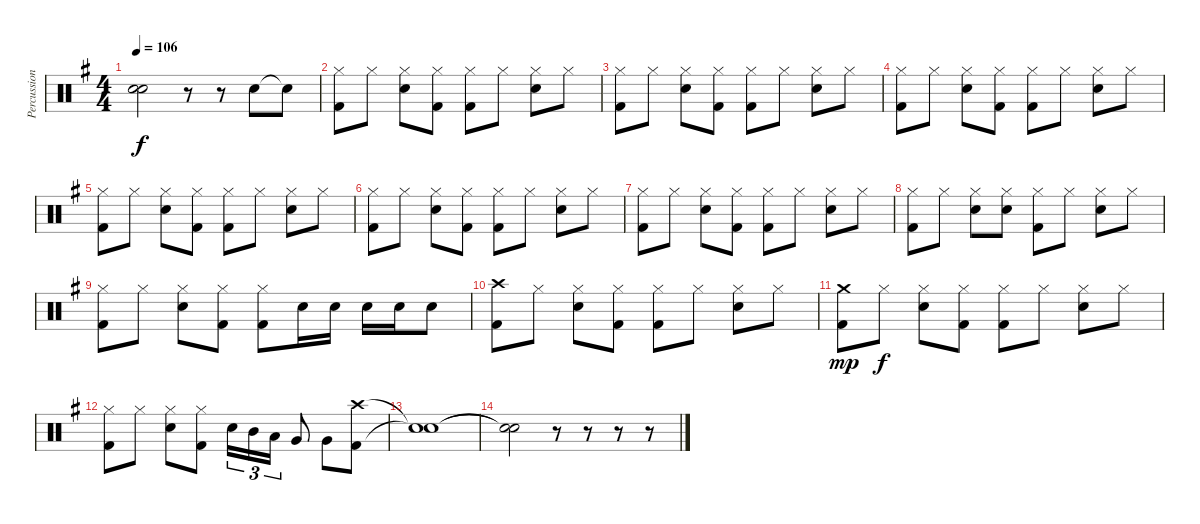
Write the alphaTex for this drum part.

\track ("Percussion" "Percussion") {instrument percussion}
\staff {score}
\articulation defaults
\ts (4 4)
\tempo 106
\clef neutral
\ks g
("Snare (hit)"{t} "Snare (hit)"{t}).2{dy f} r.8 r.8 "Snare (hit) 2".8 "Snare (hit)"{t}.8 |
("Hi-Hat (closed)" "Kick (hit) 2").8 "Hi-Hat (closed)".8 ("Hi-Hat (closed)" "Snare (hit) 2").8 ("Hi-Hat (closed)" "Kick (hit) 2").8 ("Hi-Hat (closed)" "Kick (hit) 2").8 "Hi-Hat (closed)".8 ("Hi-Hat (closed)" "Snare (hit) 2").8 "Hi-Hat (closed)".8 |
("Hi-Hat (closed)" "Kick (hit) 2").8 "Hi-Hat (closed)".8 ("Hi-Hat (closed)" "Snare (hit) 2").8 ("Hi-Hat (closed)" "Kick (hit) 2").8 ("Hi-Hat (closed)" "Kick (hit) 2").8 "Hi-Hat (closed)".8 ("Hi-Hat (closed)" "Snare (hit) 2").8 "Hi-Hat (closed)".8 |
("Hi-Hat (closed)" "Kick (hit) 2").8 "Hi-Hat (closed)".8 ("Hi-Hat (closed)" "Snare (hit) 2").8 ("Hi-Hat (closed)" "Kick (hit) 2").8 ("Hi-Hat (closed)" "Kick (hit) 2").8 "Hi-Hat (closed)".8 ("Hi-Hat (closed)" "Snare (hit) 2").8 "Hi-Hat (closed)".8 |
("Hi-Hat (closed)" "Kick (hit) 2").8 "Hi-Hat (closed)".8 ("Hi-Hat (closed)" "Snare (hit) 2").8 ("Hi-Hat (closed)" "Kick (hit) 2").8 ("Hi-Hat (closed)" "Kick (hit) 2").8 "Hi-Hat (closed)".8 ("Hi-Hat (closed)" "Snare (hit) 2").8 "Hi-Hat (closed)".8 |
("Hi-Hat (closed)" "Kick (hit) 2").8 "Hi-Hat (closed)".8 ("Hi-Hat (closed)" "Snare (hit) 2").8 ("Hi-Hat (closed)" "Kick (hit) 2").8 ("Hi-Hat (closed)" "Kick (hit) 2").8 "Hi-Hat (closed)".8 ("Hi-Hat (closed)" "Snare (hit) 2").8 "Hi-Hat (closed)".8 |
("Hi-Hat (closed)" "Kick (hit) 2").8 "Hi-Hat (closed)".8 ("Hi-Hat (closed)" "Snare (hit) 2").8 ("Hi-Hat (closed)" "Kick (hit) 2").8 ("Hi-Hat (closed)" "Kick (hit) 2").8 "Hi-Hat (closed)".8 ("Hi-Hat (closed)" "Snare (hit) 2").8 "Hi-Hat (closed)".8 |
("Hi-Hat (closed)" "Kick (hit) 2").8 "Hi-Hat (closed)".8 ("Hi-Hat (closed)" "Snare (hit) 2").8 ("Hi-Hat (closed)" "Snare (hit) 2").8 ("Hi-Hat (closed)" "Kick (hit) 2").8 "Hi-Hat (closed)".8 ("Hi-Hat (closed)" "Snare (hit) 2").8 "Hi-Hat (closed)".8 |
("Hi-Hat (closed)" "Kick (hit) 2").8 "Hi-Hat (closed)".8 ("Hi-Hat (closed)" "Snare (hit) 2").8 ("Hi-Hat (closed)" "Kick (hit) 2").8 ("Hi-Hat (closed)" "Kick (hit) 2").8 "Snare (hit) 2".16 "Snare (hit) 2".16 "Snare (hit) 2".16 "Snare (hit) 2".16 "Snare (hit) 2".8 |
("Crash high (hit)" "Kick (hit) 2").8 "Hi-Hat (closed)".8 ("Hi-Hat (closed)" "Snare (hit) 2").8 ("Hi-Hat (closed)" "Kick (hit) 2").8 ("Hi-Hat (closed)" "Kick (hit) 2").8 "Hi-Hat (closed)".8 ("Hi-Hat (closed)" "Snare (hit) 2").8 "Hi-Hat (closed)".8 |
("Crash medium (hit)" "Kick (hit) 2").8{dy mp} "Hi-Hat (closed)".8{dy f} ("Hi-Hat (closed)" "Snare (hit) 2").8 ("Hi-Hat (closed)" "Kick (hit) 2").8 ("Hi-Hat (closed)" "Kick (hit) 2").8 "Hi-Hat (closed)".8 ("Hi-Hat (closed)" "Snare (hit) 2").8 "Hi-Hat (closed)".8 |
("Hi-Hat (closed)" "Kick (hit) 2").8 "Hi-Hat (closed)".8 ("Hi-Hat (closed)" "Snare (hit) 2").8 ("Hi-Hat (closed)" "Kick (hit) 2").8 "Snare (hit) 2".16{tu (3 2)} "Mid Tom (hit)".16{tu (3 2)} "Low Tom (hit)".16{tu (3 2)} "Very Low Tom (hit)".8 "Very Low Tom (hit)".8 ("Crash high (hit)" "Kick (hit) 2").8 |
("Snare (hit)"{t} "Snare (hit)"{t}).1 |
("Snare (hit)"{t} "Snare (hit)"{t}).2 r.8 r.8 r.8 r.8
